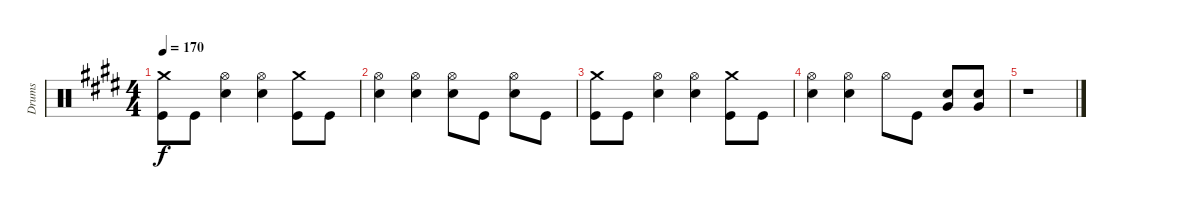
\track ("Drums" "Drums") {instrument percussion}
\staff {score}
\articulation defaults
\ts (4 4)
\tempo 170
\clef neutral
\ks e
("Kick (hit)" "Crash medium (hit)").8{dy f} "Kick (hit)".8 ("Snare (hit) 2" "Hi-Hat (open)").4 ("Snare (hit) 2" "Hi-Hat (open)").4 ("Kick (hit)" "Crash medium (hit)").8 "Kick (hit)".8 |
("Snare (hit) 2" "Hi-Hat (open)").4 ("Snare (hit) 2" "Hi-Hat (open)").4 ("Snare (hit) 2" "Hi-Hat (open)").8 "Kick (hit)".8 ("Snare (hit) 2" "Hi-Hat (open)").8 "Kick (hit)".8 |
("Kick (hit)" "Crash medium (hit)").8 "Kick (hit)".8 ("Snare (hit) 2" "Hi-Hat (open)").4 ("Snare (hit) 2" "Hi-Hat (open)").4 ("Kick (hit)" "Crash medium (hit)").8 "Kick (hit)".8 |
("Snare (hit) 2" "Hi-Hat (open)").4 ("Snare (hit) 2" "Hi-Hat (open)").4 "Hi-Hat (open)".8 "Kick (hit)".8 ("Snare (hit) 2" "Very Low Tom (hit)").8 ("Snare (hit) 2" "Very Low Tom (hit)").8 |
r.1
